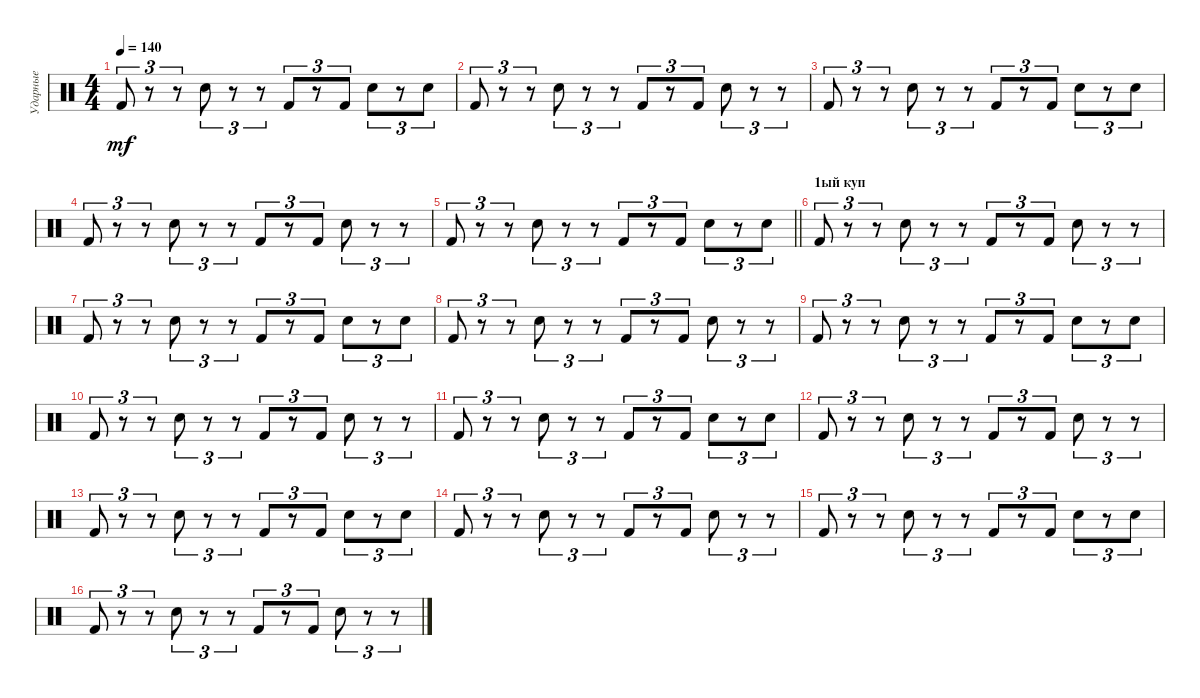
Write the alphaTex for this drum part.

\track ("Ударные" "Ударные") {instrument percussion}
\staff {score}
\articulation defaults
\ts (4 4)
\tempo 140
\clef neutral
\ks c "Kick (hit) 2".8{tu (3 2) dy mf}
r.8{tu (3 2)} r.8{tu (3 2)} "Electric Snare (hit)".8{tu (3 2)} r.8{tu (3 2)} r.8{tu (3 2)} "Kick (hit) 2".8{tu (3 2)} r.8{tu (3 2)} "Kick (hit) 2".8{tu (3 2)} "Electric Snare (hit)".8{tu (3 2)} r.8{tu (3 2)} "Electric Snare (hit)".8{tu (3 2)} |
"Kick (hit) 2".8{tu (3 2)} r.8{tu (3 2)} r.8{tu (3 2)} "Electric Snare (hit)".8{tu (3 2)} r.8{tu (3 2)} r.8{tu (3 2)} "Kick (hit) 2".8{tu (3 2)} r.8{tu (3 2)} "Kick (hit) 2".8{tu (3 2)} "Electric Snare (hit)".8{tu (3 2)} r.8{tu (3 2)} r.8{tu (3 2)} |
"Kick (hit) 2".8{tu (3 2)} r.8{tu (3 2)} r.8{tu (3 2)} "Electric Snare (hit)".8{tu (3 2)} r.8{tu (3 2)} r.8{tu (3 2)} "Kick (hit) 2".8{tu (3 2)} r.8{tu (3 2)} "Kick (hit) 2".8{tu (3 2)} "Electric Snare (hit)".8{tu (3 2)} r.8{tu (3 2)} "Electric Snare (hit)".8{tu (3 2)} |
"Kick (hit) 2".8{tu (3 2)} r.8{tu (3 2)} r.8{tu (3 2)} "Electric Snare (hit)".8{tu (3 2)} r.8{tu (3 2)} r.8{tu (3 2)} "Kick (hit) 2".8{tu (3 2)} r.8{tu (3 2)} "Kick (hit) 2".8{tu (3 2)} "Electric Snare (hit)".8{tu (3 2)} r.8{tu (3 2)} r.8{tu (3 2)} |
\barLineRight lightlight "Kick (hit) 2".8{tu (3 2)}
r.8{tu (3 2)} r.8{tu (3 2)} "Electric Snare (hit)".8{tu (3 2)} r.8{tu (3 2)} r.8{tu (3 2)} "Kick (hit) 2".8{tu (3 2)} r.8{tu (3 2)} "Kick (hit) 2".8{tu (3 2)} "Electric Snare (hit)".8{tu (3 2)} r.8{tu (3 2)} "Electric Snare (hit)".8{tu (3 2)} |
\section ("" "1ый куп")
"Kick (hit) 2".8{tu (3 2)} r.8{tu (3 2)} r.8{tu (3 2)} "Electric Snare (hit)".8{tu (3 2)} r.8{tu (3 2)} r.8{tu (3 2)} "Kick (hit) 2".8{tu (3 2)} r.8{tu (3 2)} "Kick (hit) 2".8{tu (3 2)} "Electric Snare (hit)".8{tu (3 2)} r.8{tu (3 2)} r.8{tu (3 2)} |
"Kick (hit) 2".8{tu (3 2)} r.8{tu (3 2)} r.8{tu (3 2)} "Electric Snare (hit)".8{tu (3 2)} r.8{tu (3 2)} r.8{tu (3 2)} "Kick (hit) 2".8{tu (3 2)} r.8{tu (3 2)} "Kick (hit) 2".8{tu (3 2)} "Electric Snare (hit)".8{tu (3 2)} r.8{tu (3 2)} "Electric Snare (hit)".8{tu (3 2)} |
"Kick (hit) 2".8{tu (3 2)} r.8{tu (3 2)} r.8{tu (3 2)} "Electric Snare (hit)".8{tu (3 2)} r.8{tu (3 2)} r.8{tu (3 2)} "Kick (hit) 2".8{tu (3 2)} r.8{tu (3 2)} "Kick (hit) 2".8{tu (3 2)} "Electric Snare (hit)".8{tu (3 2)} r.8{tu (3 2)} r.8{tu (3 2)} |
"Kick (hit) 2".8{tu (3 2)} r.8{tu (3 2)} r.8{tu (3 2)} "Electric Snare (hit)".8{tu (3 2)} r.8{tu (3 2)} r.8{tu (3 2)} "Kick (hit) 2".8{tu (3 2)} r.8{tu (3 2)} "Kick (hit) 2".8{tu (3 2)} "Electric Snare (hit)".8{tu (3 2)} r.8{tu (3 2)} "Electric Snare (hit)".8{tu (3 2)} |
"Kick (hit) 2".8{tu (3 2)} r.8{tu (3 2)} r.8{tu (3 2)} "Electric Snare (hit)".8{tu (3 2)} r.8{tu (3 2)} r.8{tu (3 2)} "Kick (hit) 2".8{tu (3 2)} r.8{tu (3 2)} "Kick (hit) 2".8{tu (3 2)} "Electric Snare (hit)".8{tu (3 2)} r.8{tu (3 2)} r.8{tu (3 2)} |
"Kick (hit) 2".8{tu (3 2)} r.8{tu (3 2)} r.8{tu (3 2)} "Electric Snare (hit)".8{tu (3 2)} r.8{tu (3 2)} r.8{tu (3 2)} "Kick (hit) 2".8{tu (3 2)} r.8{tu (3 2)} "Kick (hit) 2".8{tu (3 2)} "Electric Snare (hit)".8{tu (3 2)} r.8{tu (3 2)} "Electric Snare (hit)".8{tu (3 2)} |
"Kick (hit) 2".8{tu (3 2)} r.8{tu (3 2)} r.8{tu (3 2)} "Electric Snare (hit)".8{tu (3 2)} r.8{tu (3 2)} r.8{tu (3 2)} "Kick (hit) 2".8{tu (3 2)} r.8{tu (3 2)} "Kick (hit) 2".8{tu (3 2)} "Electric Snare (hit)".8{tu (3 2)} r.8{tu (3 2)} r.8{tu (3 2)} |
"Kick (hit) 2".8{tu (3 2)} r.8{tu (3 2)} r.8{tu (3 2)} "Electric Snare (hit)".8{tu (3 2)} r.8{tu (3 2)} r.8{tu (3 2)} "Kick (hit) 2".8{tu (3 2)} r.8{tu (3 2)} "Kick (hit) 2".8{tu (3 2)} "Electric Snare (hit)".8{tu (3 2)} r.8{tu (3 2)} "Electric Snare (hit)".8{tu (3 2)} |
"Kick (hit) 2".8{tu (3 2)} r.8{tu (3 2)} r.8{tu (3 2)} "Electric Snare (hit)".8{tu (3 2)} r.8{tu (3 2)} r.8{tu (3 2)} "Kick (hit) 2".8{tu (3 2)} r.8{tu (3 2)} "Kick (hit) 2".8{tu (3 2)} "Electric Snare (hit)".8{tu (3 2)} r.8{tu (3 2)} r.8{tu (3 2)} |
"Kick (hit) 2".8{tu (3 2)} r.8{tu (3 2)} r.8{tu (3 2)} "Electric Snare (hit)".8{tu (3 2)} r.8{tu (3 2)} r.8{tu (3 2)} "Kick (hit) 2".8{tu (3 2)} r.8{tu (3 2)} "Kick (hit) 2".8{tu (3 2)} "Electric Snare (hit)".8{tu (3 2)} r.8{tu (3 2)} "Electric Snare (hit)".8{tu (3 2)} |
"Kick (hit) 2".8{tu (3 2)} r.8{tu (3 2)} r.8{tu (3 2)} "Electric Snare (hit)".8{tu (3 2)} r.8{tu (3 2)} r.8{tu (3 2)} "Kick (hit) 2".8{tu (3 2)} r.8{tu (3 2)} "Kick (hit) 2".8{tu (3 2)} "Electric Snare (hit)".8{tu (3 2)} r.8{tu (3 2)} r.8{tu (3 2)}
